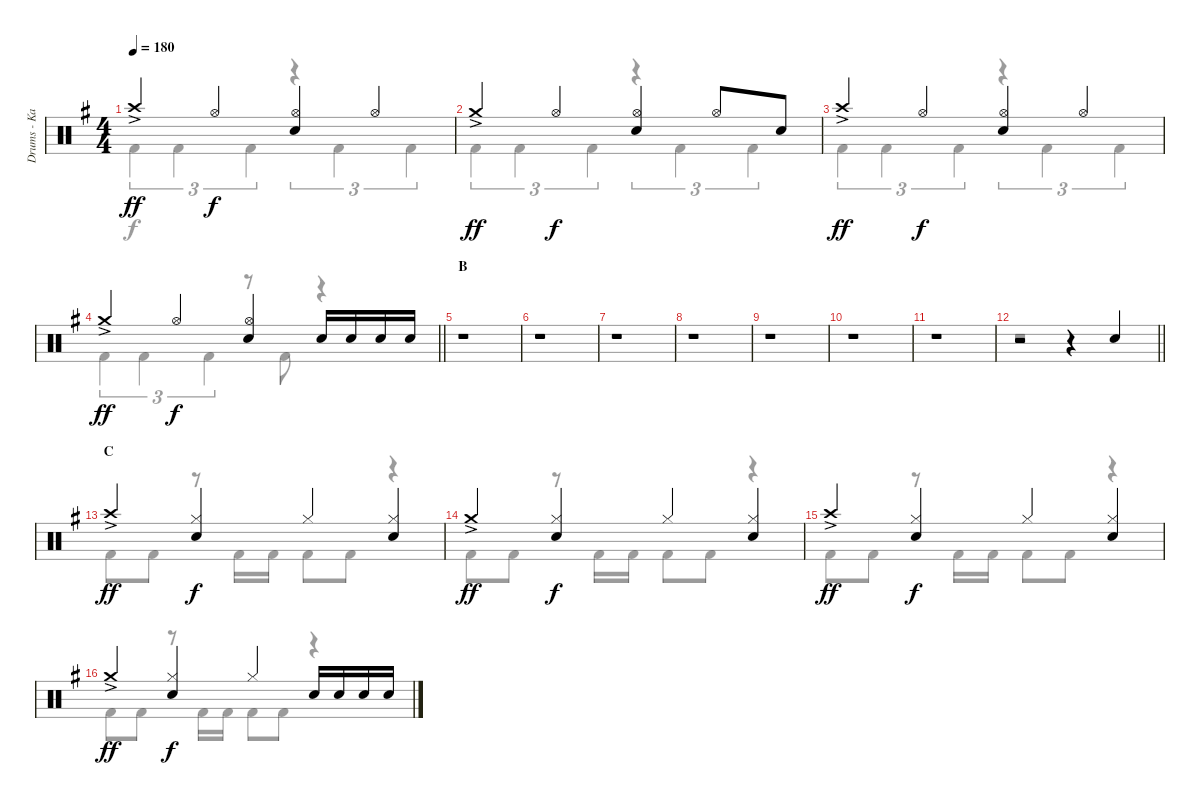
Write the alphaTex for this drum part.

\track ("Drums - Kai" "Drums - Ka") {instrument percussion}
\staff {score}
\articulation defaults
\voice
\ts (4 4)
\tempo 180
\clef neutral
\ks g "Crash high (hit)"{ac}.4{dy ff} "Hi-Hat (open)".4{dy f}
("Hi-Hat (open)" "Snare (hit) 2").4 "Hi-Hat (open)".4 |
"Crash medium (hit)"{ac}.4{dy ff} "Hi-Hat (open)".4{dy f} ("Hi-Hat (open)" "Snare (hit) 2").4 "Hi-Hat (open)".8 "Snare (hit) 2".8 |
"Crash high (hit)"{ac}.4{dy ff} "Hi-Hat (open)".4{dy f} ("Hi-Hat (open)" "Snare (hit) 2").4 "Hi-Hat (open)".4 |
\barLineRight lightlight "Crash medium (hit)"{ac}.4{dy ff} "Hi-Hat (open)".4{dy f}
("Hi-Hat (open)" "Snare (hit) 2").4 "Snare (hit) 2".16 "Snare (hit) 2".16 "Snare (hit) 2".16 "Snare (hit) 2".16 |
\section ("" "B")
r.1 |
r.1 |
r.1 |
r.1 |
r.1 |
r.1 |
r.1 |
\barLineRight lightlight
r.2 r.4 "Snare (hit) 2".4 |
\section ("" "C")
"Crash high (hit)"{ac}.4{dy ff} ("Hi-Hat (closed)" "Snare (hit) 2").4{dy f} "Hi-Hat (closed)".4 ("Hi-Hat (closed)" "Snare (hit) 2").4 |
"Crash medium (hit)"{ac}.4{dy ff} ("Hi-Hat (closed)" "Snare (hit) 2").4{dy f} "Hi-Hat (closed)".4 ("Hi-Hat (closed)" "Snare (hit) 2").4 |
"Crash high (hit)"{ac}.4{dy ff} ("Hi-Hat (closed)" "Snare (hit) 2").4{dy f} "Hi-Hat (closed)".4 ("Hi-Hat (closed)" "Snare (hit) 2").4 |
"Crash medium (hit)"{ac}.4{dy ff} ("Hi-Hat (closed)" "Snare (hit) 2").4{dy f} "Hi-Hat (closed)".4 "Snare (hit) 2".16 "Snare (hit) 2".16 "Snare (hit) 2".16 "Snare (hit) 2".16
\voice
\clef neutral
\ottava regular
\simile none
\ks g "Kick (hit) 2".4{tu (3 2) dy f} "Kick (hit) 2".4{tu (3 2)} "Kick (hit) 2".4{tu (3 2)}
r.4{tu (3 2)} "Kick (hit) 2".4{tu (3 2)} "Kick (hit) 2".4{tu (3 2)} |
"Kick (hit) 2".4{tu (3 2)} "Kick (hit) 2".4{tu (3 2)} "Kick (hit) 2".4{tu (3 2)} r.4{tu (3 2)} "Kick (hit) 2".4{tu (3 2)} "Kick (hit) 2".4{tu (3 2)} |
"Kick (hit) 2".4{tu (3 2)} "Kick (hit) 2".4{tu (3 2)} "Kick (hit) 2".4{tu (3 2)} r.4{tu (3 2)} "Kick (hit) 2".4{tu (3 2)} "Kick (hit) 2".4{tu (3 2)} |
\barLineRight lightlight "Kick (hit) 2".4{tu (3 2)} "Kick (hit) 2".4{tu (3 2)} "Kick (hit) 2".4{tu (3 2)}
r.8 "Kick (hit) 2".8 r.4 |
|
|
|
|
|
|
|
\barLineRight lightlight
r.1 |
"Kick (hit) 2".8 "Kick (hit) 2".8 r.8 "Kick (hit) 2".16 "Kick (hit) 2".16 "Kick (hit) 2".8 "Kick (hit) 2".8 r.4 |
"Kick (hit) 2".8 "Kick (hit) 2".8 r.8 "Kick (hit) 2".16 "Kick (hit) 2".16 "Kick (hit) 2".8 "Kick (hit) 2".8 r.4 |
"Kick (hit) 2".8 "Kick (hit) 2".8 r.8 "Kick (hit) 2".16 "Kick (hit) 2".16 "Kick (hit) 2".8 "Kick (hit) 2".8 r.4 |
"Kick (hit) 2".8 "Kick (hit) 2".8 r.8 "Kick (hit) 2".16 "Kick (hit) 2".16 "Kick (hit) 2".8 "Kick (hit) 2".8 r.4
